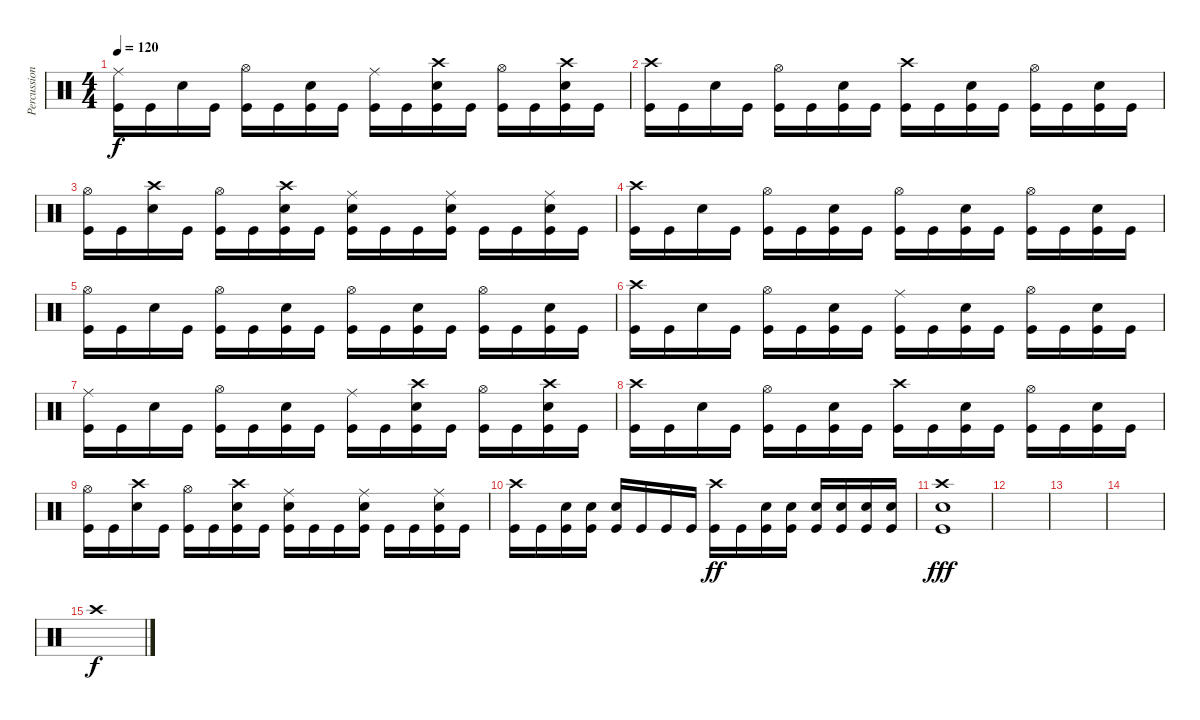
\track ("Percussion" "Percussion") {instrument percussion}
\staff {score}
\articulation defaults
\ts (4 4)
\tempo 120
\clef neutral
\ks c
("Ride (middle)" "Kick (hit)").16{dy f} "Kick (hit)".16 "Snare (hit) 2".16 "Kick (hit)".16 ("Kick (hit)" "Hi-Hat (open)").16 "Kick (hit)".16 ("Kick (hit)" "Snare (hit) 2").16 "Kick (hit)".16 ("Kick (hit)" "Ride (middle)").16 "Kick (hit)".16 ("Kick (hit)" "Snare (hit) 2" "Crash high (hit)").16 "Kick (hit)".16 ("Kick (hit)" "Hi-Hat (open)").16 "Kick (hit)".16 ("Kick (hit)" "Snare (hit) 2" "Crash high (hit)").16 "Kick (hit)".16 |
("Crash high (hit)" "Kick (hit)").16 "Kick (hit)".16 "Snare (hit) 2".16 "Kick (hit)".16 ("Kick (hit)" "Hi-Hat (open)").16 "Kick (hit)".16 ("Kick (hit)" "Snare (hit) 2").16 "Kick (hit)".16 ("Kick (hit)" "Crash high (hit)").16 "Kick (hit)".16 ("Kick (hit)" "Snare (hit) 2").16 "Kick (hit)".16 ("Kick (hit)" "Hi-Hat (open)").16 "Kick (hit)".16 ("Kick (hit)" "Snare (hit) 2").16 "Kick (hit)".16 |
("Hi-Hat (open)" "Kick (hit)").16 "Kick (hit)".16 ("Snare (hit) 2" "Crash high (hit)").16 "Kick (hit)".16 ("Kick (hit)" "Hi-Hat (open)").16 "Kick (hit)".16 ("Kick (hit)" "Snare (hit) 2" "Crash high (hit)").16 "Kick (hit)".16 ("Kick (hit)" "Ride (middle)" "Snare (hit) 2").16 "Kick (hit)".16 "Kick (hit)".16 ("Kick (hit)" "Snare (hit) 2" "Ride (middle)").16 "Kick (hit)".16 "Kick (hit)".16 ("Kick (hit)" "Snare (hit) 2" "Ride (middle)").16 "Kick (hit)".16 |
("Crash high (hit)" "Kick (hit)").16 "Kick (hit)".16 "Snare (hit) 2".16 "Kick (hit)".16 ("Kick (hit)" "Hi-Hat (open)").16 "Kick (hit)".16 ("Kick (hit)" "Snare (hit) 2").16 "Kick (hit)".16 ("Kick (hit)" "Hi-Hat (open)").16 "Kick (hit)".16 ("Kick (hit)" "Snare (hit) 2").16 "Kick (hit)".16 ("Kick (hit)" "Hi-Hat (open)").16 "Kick (hit)".16 ("Kick (hit)" "Snare (hit) 2").16 "Kick (hit)".16 |
("Hi-Hat (open)" "Kick (hit)").16 "Kick (hit)".16 "Snare (hit) 2".16 "Kick (hit)".16 ("Kick (hit)" "Hi-Hat (open)").16 "Kick (hit)".16 ("Kick (hit)" "Snare (hit) 2").16 "Kick (hit)".16 ("Kick (hit)" "Hi-Hat (open)").16 "Kick (hit)".16 ("Kick (hit)" "Snare (hit) 2").16 "Kick (hit)".16 ("Kick (hit)" "Hi-Hat (open)").16 "Kick (hit)".16 ("Kick (hit)" "Snare (hit) 2").16 "Kick (hit)".16 |
("Crash high (hit)" "Kick (hit)").16 "Kick (hit)".16 "Snare (hit) 2".16 "Kick (hit)".16 ("Kick (hit)" "Hi-Hat (open)").16 "Kick (hit)".16 ("Kick (hit)" "Snare (hit) 2").16 "Kick (hit)".16 ("Kick (hit)" "Ride (middle)").16 "Kick (hit)".16 ("Kick (hit)" "Snare (hit) 2").16 "Kick (hit)".16 ("Kick (hit)" "Hi-Hat (open)").16 "Kick (hit)".16 ("Kick (hit)" "Snare (hit) 2").16 "Kick (hit)".16 |
("Ride (middle)" "Kick (hit)").16 "Kick (hit)".16 "Snare (hit) 2".16 "Kick (hit)".16 ("Kick (hit)" "Hi-Hat (open)").16 "Kick (hit)".16 ("Kick (hit)" "Snare (hit) 2").16 "Kick (hit)".16 ("Kick (hit)" "Ride (middle)").16 "Kick (hit)".16 ("Kick (hit)" "Snare (hit) 2" "Crash high (hit)").16 "Kick (hit)".16 ("Kick (hit)" "Hi-Hat (open)").16 "Kick (hit)".16 ("Kick (hit)" "Snare (hit) 2" "Crash high (hit)").16 "Kick (hit)".16 |
("Crash high (hit)" "Kick (hit)").16 "Kick (hit)".16 "Snare (hit) 2".16 "Kick (hit)".16 ("Kick (hit)" "Hi-Hat (open)").16 "Kick (hit)".16 ("Kick (hit)" "Snare (hit) 2").16 "Kick (hit)".16 ("Kick (hit)" "Crash high (hit)").16 "Kick (hit)".16 ("Kick (hit)" "Snare (hit) 2").16 "Kick (hit)".16 ("Kick (hit)" "Hi-Hat (open)").16 "Kick (hit)".16 ("Kick (hit)" "Snare (hit) 2").16 "Kick (hit)".16 |
("Hi-Hat (open)" "Kick (hit)").16 "Kick (hit)".16 ("Snare (hit) 2" "Crash high (hit)").16 "Kick (hit)".16 ("Kick (hit)" "Hi-Hat (open)").16 "Kick (hit)".16 ("Kick (hit)" "Snare (hit) 2" "Crash high (hit)").16 "Kick (hit)".16 ("Kick (hit)" "Ride (middle)" "Snare (hit) 2").16 "Kick (hit)".16 "Kick (hit)".16 ("Kick (hit)" "Snare (hit) 2" "Ride (middle)").16 "Kick (hit)".16 "Kick (hit)".16 ("Kick (hit)" "Snare (hit) 2" "Ride (middle)").16 "Kick (hit)".16 |
("Crash high (hit)" "Kick (hit)").16 "Kick (hit)".16 ("Kick (hit)" "Snare (hit) 2").16 ("Kick (hit)" "Snare (hit) 2").16 ("Snare (hit) 2" "Kick (hit)").16 "Kick (hit)".16 "Kick (hit)".16 "Kick (hit)".16 ("Crash high (hit)" "Kick (hit)").16{dy ff} "Kick (hit)".16 ("Kick (hit)" "Snare (hit) 2").16 ("Kick (hit)" "Snare (hit) 2").16 ("Snare (hit) 2" "Kick (hit)").16 ("Kick (hit)" "Snare (hit) 2").16 ("Kick (hit)" "Snare (hit) 2").16 ("Kick (hit)" "Snare (hit) 2").16 |
("Kick (hit)" "Snare (hit) 2" "Crash high (hit)").1{dy fff} |
|
|
|
"Crash high (hit)".1{dy f}
